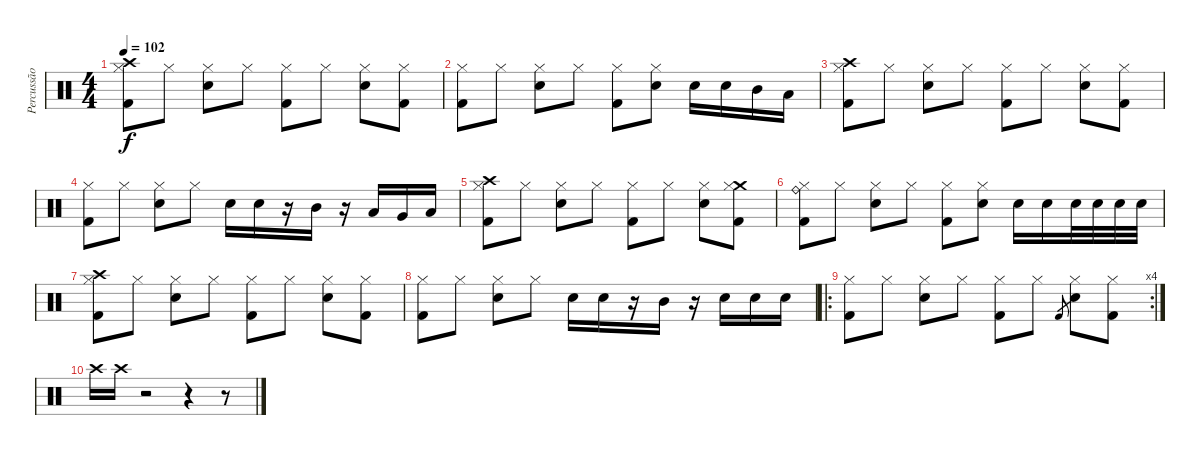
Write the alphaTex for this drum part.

\track ("Percussão" "Percussão") {instrument percussion}
\staff {score}
\articulation defaults
\ts (4 4)
\tempo 102
\clef neutral
\ks c
("Crash high (hit)" "Hi-Hat (closed)" "Kick (hit) 2").8{dy f} "Hi-Hat (closed)".8 ("Hi-Hat (closed)" "Snare (hit) 2").8 "Hi-Hat (closed)".8 ("Hi-Hat (closed)" "Kick (hit) 2").8 "Hi-Hat (closed)".8 ("Hi-Hat (closed)" "Snare (hit) 2").8 ("Hi-Hat (closed)" "Kick (hit) 2").8 |
("Hi-Hat (closed)" "Kick (hit) 2").8 "Hi-Hat (closed)".8 ("Hi-Hat (closed)" "Snare (hit) 2").8 "Hi-Hat (closed)".8 ("Hi-Hat (closed)" "Kick (hit) 2").8 ("Hi-Hat (closed)" "Snare (hit) 2").8 "Snare (hit) 2".16 "Snare (hit) 2".16 "Mid Tom (hit)".16 "Low Tom (hit)".16 |
("Crash high (hit)" "Hi-Hat (closed)" "Kick (hit) 2").8 "Hi-Hat (closed)".8 ("Hi-Hat (closed)" "Snare (hit) 2").8 "Hi-Hat (closed)".8 ("Hi-Hat (closed)" "Kick (hit) 2").8 "Hi-Hat (closed)".8 ("Hi-Hat (closed)" "Snare (hit) 2").8 ("Hi-Hat (closed)" "Kick (hit) 2").8 |
("Hi-Hat (closed)" "Kick (hit) 2").8 "Hi-Hat (closed)".8 ("Hi-Hat (closed)" "Snare (hit) 2").8 "Hi-Hat (closed)".8 "Snare (hit) 2".16 "Snare (hit) 2".16 r.16 "Mid Tom (hit)".16 r.16 "Low Tom (hit)".16 "Very Low Tom (hit)".16 "Low Floor Tom (hit)".16 |
("Crash high (hit)" "Hi-Hat (closed)" "Kick (hit) 2").8 "Hi-Hat (closed)".8 ("Hi-Hat (closed)" "Snare (hit) 2").8 "Hi-Hat (closed)".8 ("Hi-Hat (closed)" "Kick (hit) 2").8 "Hi-Hat (closed)".8 ("Hi-Hat (closed)" "Snare (hit) 2").8 ("Crash medium (hit)" "Hi-Hat (closed)" "Kick (hit) 2").8 |
("Ride (bell)" "Hi-Hat (closed)" "Kick (hit) 2").8 "Hi-Hat (closed)".8 ("Hi-Hat (closed)" "Snare (hit) 2").8 "Hi-Hat (closed)".8 ("Hi-Hat (closed)" "Kick (hit) 2").8 ("Hi-Hat (closed)" "Snare (hit) 2").8 "Snare (hit) 2".16 "Snare (hit) 2".16 "Snare (hit) 2".32 "Snare (hit) 2".32 "Snare (hit) 2".32 "Snare (hit) 2".32 |
("Crash high (hit)" "Hi-Hat (closed)" "Kick (hit) 2").8 "Hi-Hat (closed)".8 ("Hi-Hat (closed)" "Snare (hit) 2").8 "Hi-Hat (closed)".8 ("Hi-Hat (closed)" "Kick (hit) 2").8 "Hi-Hat (closed)".8 ("Hi-Hat (closed)" "Snare (hit) 2").8 ("Hi-Hat (closed)" "Kick (hit) 2").8 |
("Hi-Hat (closed)" "Kick (hit) 2").8 "Hi-Hat (closed)".8 ("Hi-Hat (closed)" "Snare (hit) 2").8 "Hi-Hat (closed)".8 "Snare (hit) 2".16 "Snare (hit) 2".16 r.16 "Mid Tom (hit)".16 r.16 "Snare (hit) 2".16 "Snare (hit) 2".16 "Snare (hit) 2".16 |
\ro
\rc 4
("Hi-Hat (closed)" "Kick (hit) 2").8 "Hi-Hat (closed)".8 ("Hi-Hat (closed)" "Snare (hit) 2").8 "Hi-Hat (closed)".8 ("Hi-Hat (closed)" "Kick (hit) 2").8 "Hi-Hat (closed)".8 "Kick (hit) 2".8{gr} ("Hi-Hat (closed)" "Snare (hit) 2").8 ("Hi-Hat (closed)" "Kick (hit) 2").8 |
"Crash high (hit)".16 "Crash high (hit)".16 r.2 r.4 r.8
